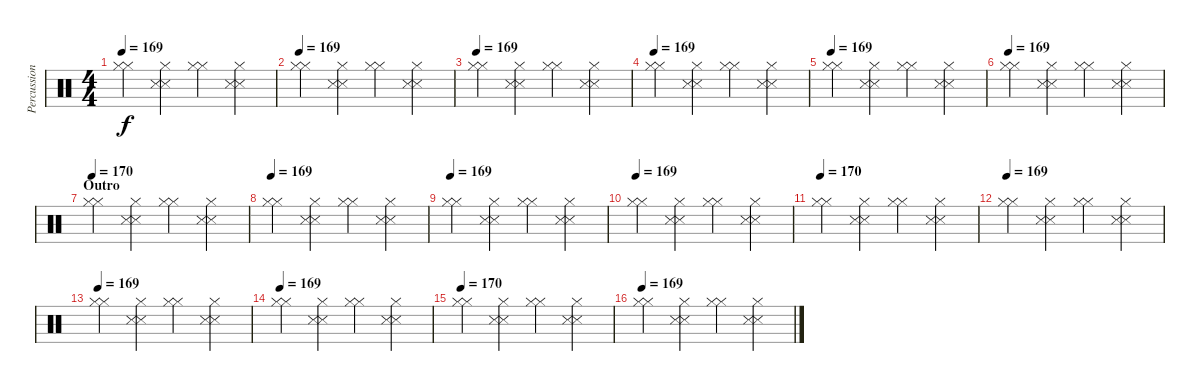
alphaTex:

\track ("Percussion" "Percussion") {instrument percussion}
\staff {score}
\articulation defaults
\ts (4 4)
\tempo 169
\clef neutral
\ks c
("Hi-Hat (closed)" "Hi-Hat (closed)").4{dy f} ("Hi-Hat (closed)" "Snare (side stick) 3" "Snare (side stick) 3").4 ("Hi-Hat (closed)" "Hi-Hat (closed)").4 ("Hi-Hat (closed)" "Snare (side stick) 3" "Snare (side stick) 3").4 |
\tempo 169
("Hi-Hat (closed)" "Hi-Hat (closed)").4 ("Hi-Hat (closed)" "Snare (side stick) 3" "Snare (side stick) 3").4 ("Hi-Hat (closed)" "Hi-Hat (closed)").4 ("Hi-Hat (closed)" "Snare (side stick) 3" "Snare (side stick) 3").4 |
\tempo 169
("Hi-Hat (closed)" "Hi-Hat (closed)").4 ("Hi-Hat (closed)" "Snare (side stick) 3" "Snare (side stick) 3").4 ("Hi-Hat (closed)" "Hi-Hat (closed)").4 ("Hi-Hat (closed)" "Snare (side stick) 3" "Snare (side stick) 3").4 |
\tempo 169
("Hi-Hat (closed)" "Hi-Hat (closed)").4 ("Hi-Hat (closed)" "Snare (side stick) 3" "Snare (side stick) 3").4 ("Hi-Hat (closed)" "Hi-Hat (closed)").4 ("Hi-Hat (closed)" "Snare (side stick) 3" "Snare (side stick) 3").4 |
\tempo 169
("Hi-Hat (closed)" "Hi-Hat (closed)").4 ("Hi-Hat (closed)" "Snare (side stick) 3" "Snare (side stick) 3").4 ("Hi-Hat (closed)" "Hi-Hat (closed)").4 ("Hi-Hat (closed)" "Snare (side stick) 3" "Snare (side stick) 3").4 |
\tempo 169
("Hi-Hat (closed)" "Hi-Hat (closed)").4 ("Hi-Hat (closed)" "Snare (side stick) 3" "Snare (side stick) 3").4 ("Hi-Hat (closed)" "Hi-Hat (closed)").4 ("Hi-Hat (closed)" "Snare (side stick) 3" "Snare (side stick) 3").4 |
\section ("" "Outro")
\tempo 169
\tempo 170
("Hi-Hat (closed)" "Hi-Hat (closed)").4 ("Hi-Hat (closed)" "Snare (side stick) 3" "Snare (side stick) 3").4 ("Hi-Hat (closed)" "Hi-Hat (closed)").4 ("Hi-Hat (closed)" "Snare (side stick) 3" "Snare (side stick) 3").4 |
\tempo 169
("Hi-Hat (closed)" "Hi-Hat (closed)").4 ("Hi-Hat (closed)" "Snare (side stick) 3" "Snare (side stick) 3").4 ("Hi-Hat (closed)" "Hi-Hat (closed)").4 ("Hi-Hat (closed)" "Snare (side stick) 3" "Snare (side stick) 3").4 |
\tempo 169
("Hi-Hat (closed)" "Hi-Hat (closed)").4 ("Hi-Hat (closed)" "Snare (side stick) 3" "Snare (side stick) 3").4 ("Hi-Hat (closed)" "Hi-Hat (closed)").4 ("Hi-Hat (closed)" "Snare (side stick) 3" "Snare (side stick) 3").4 |
\tempo 169
("Hi-Hat (closed)" "Hi-Hat (closed)").4 ("Hi-Hat (closed)" "Snare (side stick) 3" "Snare (side stick) 3").4 ("Hi-Hat (closed)" "Hi-Hat (closed)").4 ("Hi-Hat (closed)" "Snare (side stick) 3" "Snare (side stick) 3").4 |
\tempo 169
\tempo 170
("Hi-Hat (closed)" "Hi-Hat (closed)").4 ("Hi-Hat (closed)" "Snare (side stick) 3" "Snare (side stick) 3").4 ("Hi-Hat (closed)" "Hi-Hat (closed)").4 ("Hi-Hat (closed)" "Snare (side stick) 3" "Snare (side stick) 3").4 |
\tempo 169
("Hi-Hat (closed)" "Hi-Hat (closed)").4 ("Hi-Hat (closed)" "Snare (side stick) 3" "Snare (side stick) 3").4 ("Hi-Hat (closed)" "Hi-Hat (closed)").4 ("Hi-Hat (closed)" "Snare (side stick) 3" "Snare (side stick) 3").4 |
\tempo 169
("Hi-Hat (closed)" "Hi-Hat (closed)").4 ("Hi-Hat (closed)" "Snare (side stick) 3" "Snare (side stick) 3").4 ("Hi-Hat (closed)" "Hi-Hat (closed)").4 ("Hi-Hat (closed)" "Snare (side stick) 3" "Snare (side stick) 3").4 |
\tempo 169
("Hi-Hat (closed)" "Hi-Hat (closed)").4 ("Hi-Hat (closed)" "Snare (side stick) 3" "Snare (side stick) 3").4 ("Hi-Hat (closed)" "Hi-Hat (closed)").4 ("Hi-Hat (closed)" "Snare (side stick) 3" "Snare (side stick) 3").4 |
\tempo 169
\tempo 170
("Hi-Hat (closed)" "Hi-Hat (closed)").4 ("Hi-Hat (closed)" "Snare (side stick) 3" "Snare (side stick) 3").4 ("Hi-Hat (closed)" "Hi-Hat (closed)").4 ("Hi-Hat (closed)" "Snare (side stick) 3" "Snare (side stick) 3").4 |
\tempo 169
("Hi-Hat (closed)" "Hi-Hat (closed)").4 ("Hi-Hat (closed)" "Snare (side stick) 3" "Snare (side stick) 3").4 ("Hi-Hat (closed)" "Hi-Hat (closed)").4 ("Hi-Hat (closed)" "Snare (side stick) 3" "Snare (side stick) 3").4
